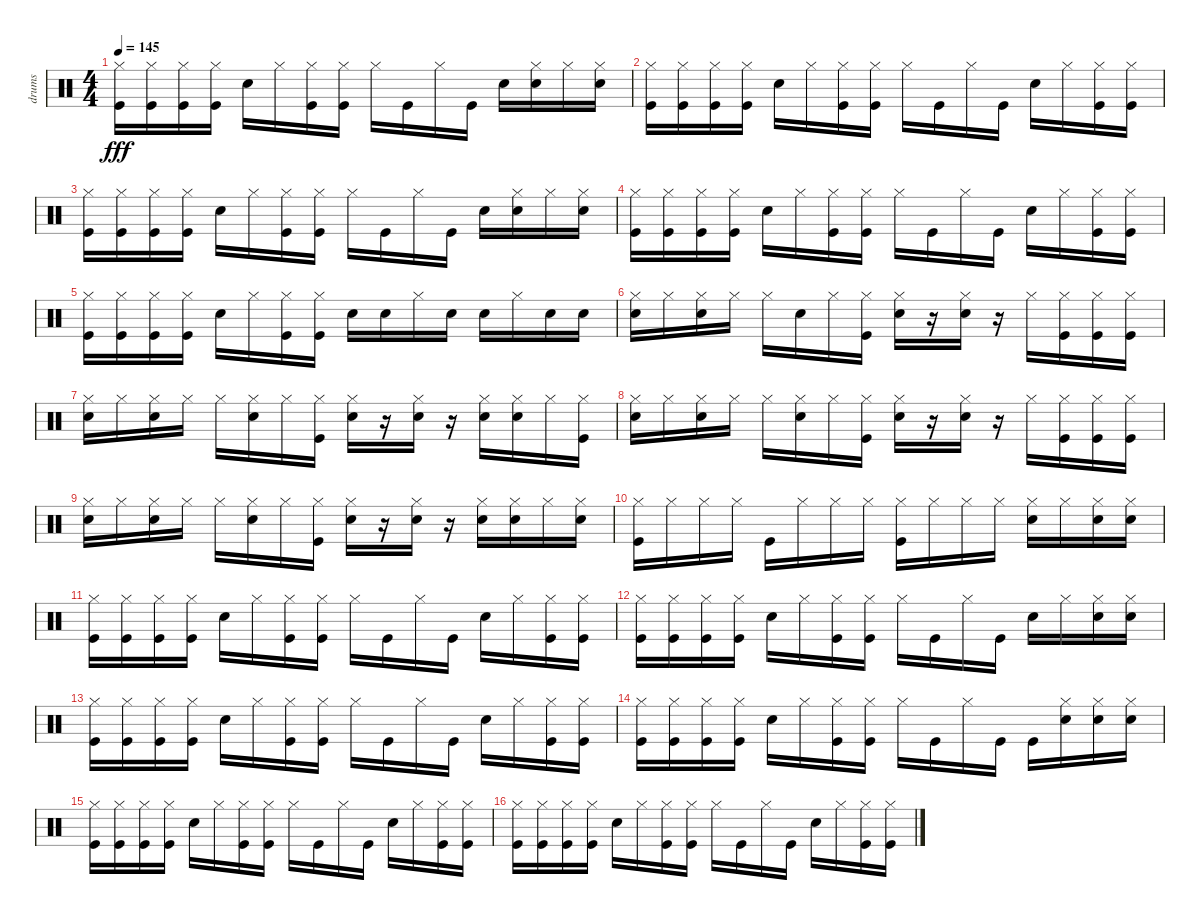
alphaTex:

\track ("drums" "drums") {instrument percussion}
\staff {score}
\articulation defaults
\ts (4 4)
\tempo 145
\clef neutral
\ks c
("Kick (hit)" "Hi-Hat (closed)").16{dy fff} ("Kick (hit)" "Hi-Hat (closed)").16 ("Kick (hit)" "Hi-Hat (closed)").16 ("Kick (hit)" "Hi-Hat (closed)").16 "Snare (hit) 2".16 "Hi-Hat (closed)".16 ("Kick (hit)" "Hi-Hat (closed)").16 ("Kick (hit)" "Hi-Hat (closed)").16 "Hi-Hat (closed)".16 "Kick (hit)".16 "Hi-Hat (closed)".16 "Kick (hit)".16 "Snare (hit) 2".16 ("Snare (hit) 2" "Hi-Hat (closed)").16 "Hi-Hat (closed)".16 ("Snare (hit) 2" "Hi-Hat (closed)").16 |
("Kick (hit)" "Hi-Hat (closed)").16 ("Kick (hit)" "Hi-Hat (closed)").16 ("Kick (hit)" "Hi-Hat (closed)").16 ("Kick (hit)" "Hi-Hat (closed)").16 "Snare (hit) 2".16 "Hi-Hat (closed)".16 ("Kick (hit)" "Hi-Hat (closed)").16 ("Kick (hit)" "Hi-Hat (closed)").16 "Hi-Hat (closed)".16 "Kick (hit)".16 "Hi-Hat (closed)".16 "Kick (hit)".16 "Snare (hit) 2".16 "Hi-Hat (closed)".16 ("Kick (hit)" "Hi-Hat (closed)").16 ("Kick (hit)" "Hi-Hat (closed)").16 |
("Kick (hit)" "Hi-Hat (closed)").16 ("Kick (hit)" "Hi-Hat (closed)").16 ("Kick (hit)" "Hi-Hat (closed)").16 ("Kick (hit)" "Hi-Hat (closed)").16 "Snare (hit) 2".16 "Hi-Hat (closed)".16 ("Kick (hit)" "Hi-Hat (closed)").16 ("Kick (hit)" "Hi-Hat (closed)").16 "Hi-Hat (closed)".16 "Kick (hit)".16 "Hi-Hat (closed)".16 "Kick (hit)".16 "Snare (hit) 2".16 ("Snare (hit) 2" "Hi-Hat (closed)").16 "Hi-Hat (closed)".16 ("Snare (hit) 2" "Hi-Hat (closed)").16 |
("Kick (hit)" "Hi-Hat (closed)").16 ("Kick (hit)" "Hi-Hat (closed)").16 ("Kick (hit)" "Hi-Hat (closed)").16 ("Kick (hit)" "Hi-Hat (closed)").16 "Snare (hit) 2".16 "Hi-Hat (closed)".16 ("Kick (hit)" "Hi-Hat (closed)").16 ("Kick (hit)" "Hi-Hat (closed)").16 "Hi-Hat (closed)".16 "Kick (hit)".16 "Hi-Hat (closed)".16 "Kick (hit)".16 "Snare (hit) 2".16 "Hi-Hat (closed)".16 ("Kick (hit)" "Hi-Hat (closed)").16 ("Kick (hit)" "Hi-Hat (closed)").16 |
("Kick (hit)" "Hi-Hat (closed)").16 ("Kick (hit)" "Hi-Hat (closed)").16 ("Kick (hit)" "Hi-Hat (closed)").16 ("Kick (hit)" "Hi-Hat (closed)").16 "Snare (hit) 2".16 "Hi-Hat (closed)".16 ("Kick (hit)" "Hi-Hat (closed)").16 ("Kick (hit)" "Hi-Hat (closed)").16 "Snare (hit) 2".16 "Snare (hit) 2".16 "Hi-Hat (closed)".16 "Snare (hit) 2".16 "Snare (hit) 2".16 "Hi-Hat (closed)".16 "Snare (hit) 2".16 "Snare (hit) 2".16 |
("Snare (hit) 2" "Hi-Hat (closed)").16 "Hi-Hat (closed)".16 ("Snare (hit) 2" "Hi-Hat (closed)").16 "Hi-Hat (closed)".16 "Hi-Hat (closed)".16 "Snare (hit) 2".16 "Hi-Hat (closed)".16 ("Kick (hit)" "Hi-Hat (closed)").16 ("Snare (hit) 2" "Hi-Hat (closed)").16 r.16 ("Snare (hit) 2" "Hi-Hat (closed)").16 r.16 "Hi-Hat (closed)".16 ("Kick (hit)" "Hi-Hat (closed)").16 ("Kick (hit)" "Hi-Hat (closed)").16 ("Kick (hit)" "Hi-Hat (closed)").16 |
("Snare (hit) 2" "Hi-Hat (closed)").16 "Hi-Hat (closed)".16 ("Snare (hit) 2" "Hi-Hat (closed)").16 "Hi-Hat (closed)".16 "Hi-Hat (closed)".16 ("Snare (hit) 2" "Hi-Hat (closed)").16 "Hi-Hat (closed)".16 ("Kick (hit)" "Hi-Hat (closed)").16 ("Snare (hit) 2" "Hi-Hat (closed)").16 r.16 ("Snare (hit) 2" "Hi-Hat (closed)").16 r.16 ("Snare (hit) 2" "Hi-Hat (closed)").16 ("Snare (hit) 2" "Hi-Hat (closed)").16 "Hi-Hat (closed)".16 ("Kick (hit)" "Hi-Hat (closed)").16 |
("Snare (hit) 2" "Hi-Hat (closed)").16 "Hi-Hat (closed)".16 ("Snare (hit) 2" "Hi-Hat (closed)").16 "Hi-Hat (closed)".16 "Hi-Hat (closed)".16 ("Snare (hit) 2" "Hi-Hat (closed)").16 "Hi-Hat (closed)".16 ("Kick (hit)" "Hi-Hat (closed)").16 ("Snare (hit) 2" "Hi-Hat (closed)").16 r.16 ("Snare (hit) 2" "Hi-Hat (closed)").16 r.16 "Hi-Hat (closed)".16 ("Kick (hit)" "Hi-Hat (closed)").16 ("Kick (hit)" "Hi-Hat (closed)").16 ("Kick (hit)" "Hi-Hat (closed)").16 |
("Snare (hit) 2" "Hi-Hat (closed)").16 "Hi-Hat (closed)".16 ("Snare (hit) 2" "Hi-Hat (closed)").16 "Hi-Hat (closed)".16 "Hi-Hat (closed)".16 ("Snare (hit) 2" "Hi-Hat (closed)").16 "Hi-Hat (closed)".16 ("Kick (hit)" "Hi-Hat (closed)").16 ("Snare (hit) 2" "Hi-Hat (closed)").16 r.16 ("Snare (hit) 2" "Hi-Hat (closed)").16 r.16 ("Snare (hit) 2" "Hi-Hat (closed)").16 ("Snare (hit) 2" "Hi-Hat (closed)").16 "Hi-Hat (closed)".16 ("Snare (hit) 2" "Hi-Hat (closed)").16 |
("Kick (hit)" "Hi-Hat (closed)").16 "Hi-Hat (closed)".16 "Hi-Hat (closed)".16 "Hi-Hat (closed)".16 "Kick (hit)".16 "Hi-Hat (closed)".16 "Hi-Hat (closed)".16 "Hi-Hat (closed)".16 ("Kick (hit)" "Hi-Hat (closed)").16 "Hi-Hat (closed)".16 "Hi-Hat (closed)".16 "Hi-Hat (closed)".16 ("Snare (hit) 2" "Hi-Hat (closed)").16 "Hi-Hat (closed)".16 ("Snare (hit) 2" "Hi-Hat (closed)").16 ("Snare (hit) 2" "Hi-Hat (closed)").16 |
("Kick (hit)" "Hi-Hat (closed)").16 ("Kick (hit)" "Hi-Hat (closed)").16 ("Kick (hit)" "Hi-Hat (closed)").16 ("Kick (hit)" "Hi-Hat (closed)").16 "Snare (hit) 2".16 "Hi-Hat (closed)".16 ("Kick (hit)" "Hi-Hat (closed)").16 ("Kick (hit)" "Hi-Hat (closed)").16 "Hi-Hat (closed)".16 "Kick (hit)".16 "Hi-Hat (closed)".16 "Kick (hit)".16 "Snare (hit) 2".16 "Hi-Hat (closed)".16 ("Kick (hit)" "Hi-Hat (closed)").16 ("Kick (hit)" "Hi-Hat (closed)").16 |
("Kick (hit)" "Hi-Hat (closed)").16 ("Kick (hit)" "Hi-Hat (closed)").16 ("Kick (hit)" "Hi-Hat (closed)").16 ("Kick (hit)" "Hi-Hat (closed)").16 "Snare (hit) 2".16 "Hi-Hat (closed)".16 ("Kick (hit)" "Hi-Hat (closed)").16 ("Kick (hit)" "Hi-Hat (closed)").16 "Hi-Hat (closed)".16 "Kick (hit)".16 "Hi-Hat (closed)".16 "Kick (hit)".16 "Snare (hit) 2".16 "Hi-Hat (closed)".16 ("Snare (hit) 2" "Hi-Hat (closed)").16 ("Snare (hit) 2" "Hi-Hat (closed)").16 |
("Kick (hit)" "Hi-Hat (closed)").16 ("Kick (hit)" "Hi-Hat (closed)").16 ("Kick (hit)" "Hi-Hat (closed)").16 ("Kick (hit)" "Hi-Hat (closed)").16 "Snare (hit) 2".16 "Hi-Hat (closed)".16 ("Kick (hit)" "Hi-Hat (closed)").16 ("Kick (hit)" "Hi-Hat (closed)").16 "Hi-Hat (closed)".16 "Kick (hit)".16 "Hi-Hat (closed)".16 "Kick (hit)".16 "Snare (hit) 2".16 "Hi-Hat (closed)".16 ("Kick (hit)" "Hi-Hat (closed)").16 ("Kick (hit)" "Hi-Hat (closed)").16 |
("Kick (hit)" "Hi-Hat (closed)").16 ("Kick (hit)" "Hi-Hat (closed)").16 ("Kick (hit)" "Hi-Hat (closed)").16 ("Kick (hit)" "Hi-Hat (closed)").16 "Snare (hit) 2".16 "Hi-Hat (closed)".16 ("Kick (hit)" "Hi-Hat (closed)").16 ("Kick (hit)" "Hi-Hat (closed)").16 "Hi-Hat (closed)".16 "Kick (hit)".16 "Hi-Hat (closed)".16 "Kick (hit)".16 "Kick (hit)".16 ("Snare (hit) 2" "Hi-Hat (closed)").16 ("Snare (hit) 2" "Hi-Hat (closed)").16 ("Snare (hit) 2" "Hi-Hat (closed)").16 |
("Kick (hit)" "Hi-Hat (closed)").16 ("Kick (hit)" "Hi-Hat (closed)").16 ("Kick (hit)" "Hi-Hat (closed)").16 ("Kick (hit)" "Hi-Hat (closed)").16 "Snare (hit) 2".16 "Hi-Hat (closed)".16 ("Kick (hit)" "Hi-Hat (closed)").16 ("Kick (hit)" "Hi-Hat (closed)").16 "Hi-Hat (closed)".16 "Kick (hit)".16 "Hi-Hat (closed)".16 "Kick (hit)".16 "Snare (hit) 2".16 "Hi-Hat (closed)".16 ("Kick (hit)" "Hi-Hat (closed)").16 ("Kick (hit)" "Hi-Hat (closed)").16 |
("Kick (hit)" "Hi-Hat (closed)").16 ("Kick (hit)" "Hi-Hat (closed)").16 ("Kick (hit)" "Hi-Hat (closed)").16 ("Kick (hit)" "Hi-Hat (closed)").16 "Snare (hit) 2".16 "Hi-Hat (closed)".16 ("Kick (hit)" "Hi-Hat (closed)").16 ("Kick (hit)" "Hi-Hat (closed)").16 "Hi-Hat (closed)".16 "Kick (hit)".16 "Hi-Hat (closed)".16 "Kick (hit)".16 "Snare (hit) 2".16 "Hi-Hat (closed)".16 ("Kick (hit)" "Hi-Hat (closed)").16 ("Kick (hit)" "Hi-Hat (closed)").16
